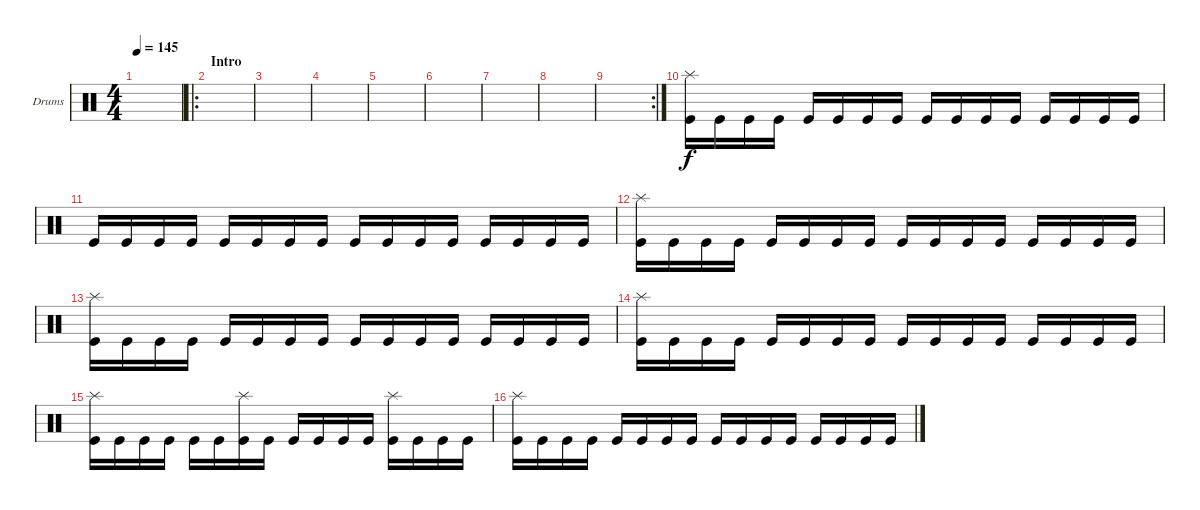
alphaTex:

\defaultSystemsLayout 4
\bracketExtendMode groupsimilarinstruments
\firstSystemTrackNameOrientation horizontal
\otherSystemsTrackNameOrientation horizontal
\track ("Drumkit" "Drums") {instrument percussion}
\staff {score}
\articulation defaults
\ts (4 4)
\tempo 145
\clef neutral
\ks c
|
\ro
\section ("" "Intro")
\scale
0.472222 |
\scale
0.263889 |
\scale
0.263889 |
\scale
0.333333 |
\scale
0.333333 |
\scale
0.333333 |
\scale
0.333333 |
\rc 2
\scale
0.333333 |
\scale
0.333333 ("Kick (hit)" "Splash (hit)").16 "Kick (hit)".16 "Kick (hit)".16 "Kick (hit)".16 "Kick (hit)".16 "Kick (hit)".16 "Kick (hit)".16 "Kick (hit)".16 "Kick (hit)".16 "Kick (hit)".16 "Kick (hit)".16 "Kick (hit)".16 "Kick (hit)".16 "Kick (hit)".16 "Kick (hit)".16 "Kick (hit)".16 |
\scale
0.333333 "Kick (hit)".16 "Kick (hit)".16 "Kick (hit)".16 "Kick (hit)".16 "Kick (hit)".16 "Kick (hit)".16 "Kick (hit)".16 "Kick (hit)".16 "Kick (hit)".16 "Kick (hit)".16 "Kick (hit)".16 "Kick (hit)".16 "Kick (hit)".16 "Kick (hit)".16 "Kick (hit)".16 "Kick (hit)".16 |
\scale
0.333333 ("Kick (hit)" "Splash (hit)").16 "Kick (hit)".16 "Kick (hit)".16 "Kick (hit)".16 "Kick (hit)".16 "Kick (hit)".16 "Kick (hit)".16 "Kick (hit)".16 "Kick (hit)".16 "Kick (hit)".16 "Kick (hit)".16 "Kick (hit)".16 "Kick (hit)".16 "Kick (hit)".16 "Kick (hit)".16 "Kick (hit)".16 |
\scale
0.333333 ("Kick (hit)" "Splash (hit)").16 "Kick (hit)".16 "Kick (hit)".16 "Kick (hit)".16 "Kick (hit)".16 "Kick (hit)".16 "Kick (hit)".16 "Kick (hit)".16 "Kick (hit)".16 "Kick (hit)".16 "Kick (hit)".16 "Kick (hit)".16 "Kick (hit)".16 "Kick (hit)".16 "Kick (hit)".16 "Kick (hit)".16 |
\scale
0.333333 ("Kick (hit)" "Splash (hit)").16 "Kick (hit)".16 "Kick (hit)".16 "Kick (hit)".16 "Kick (hit)".16 "Kick (hit)".16 "Kick (hit)".16 "Kick (hit)".16 "Kick (hit)".16 "Kick (hit)".16 "Kick (hit)".16 "Kick (hit)".16 "Kick (hit)".16 "Kick (hit)".16 "Kick (hit)".16 "Kick (hit)".16 |
\scale
0.333333 ("Kick (hit)" "Splash (hit)").16 "Kick (hit)".16 "Kick (hit)".16 "Kick (hit)".16 "Kick (hit)".16 "Kick (hit)".16 ("Kick (hit)" "Splash (hit)").16 "Kick (hit)".16 "Kick (hit)".16 "Kick (hit)".16 "Kick (hit)".16 "Kick (hit)".16 ("Kick (hit)" "Splash (hit)").16 "Kick (hit)".16 "Kick (hit)".16 "Kick (hit)".16 |
\scale
0.333333 ("Kick (hit)" "Splash (hit)").16 "Kick (hit)".16 "Kick (hit)".16 "Kick (hit)".16 "Kick (hit)".16 "Kick (hit)".16 "Kick (hit)".16 "Kick (hit)".16 "Kick (hit)".16 "Kick (hit)".16 "Kick (hit)".16 "Kick (hit)".16 "Kick (hit)".16 "Kick (hit)".16 "Kick (hit)".16 "Kick (hit)".16
